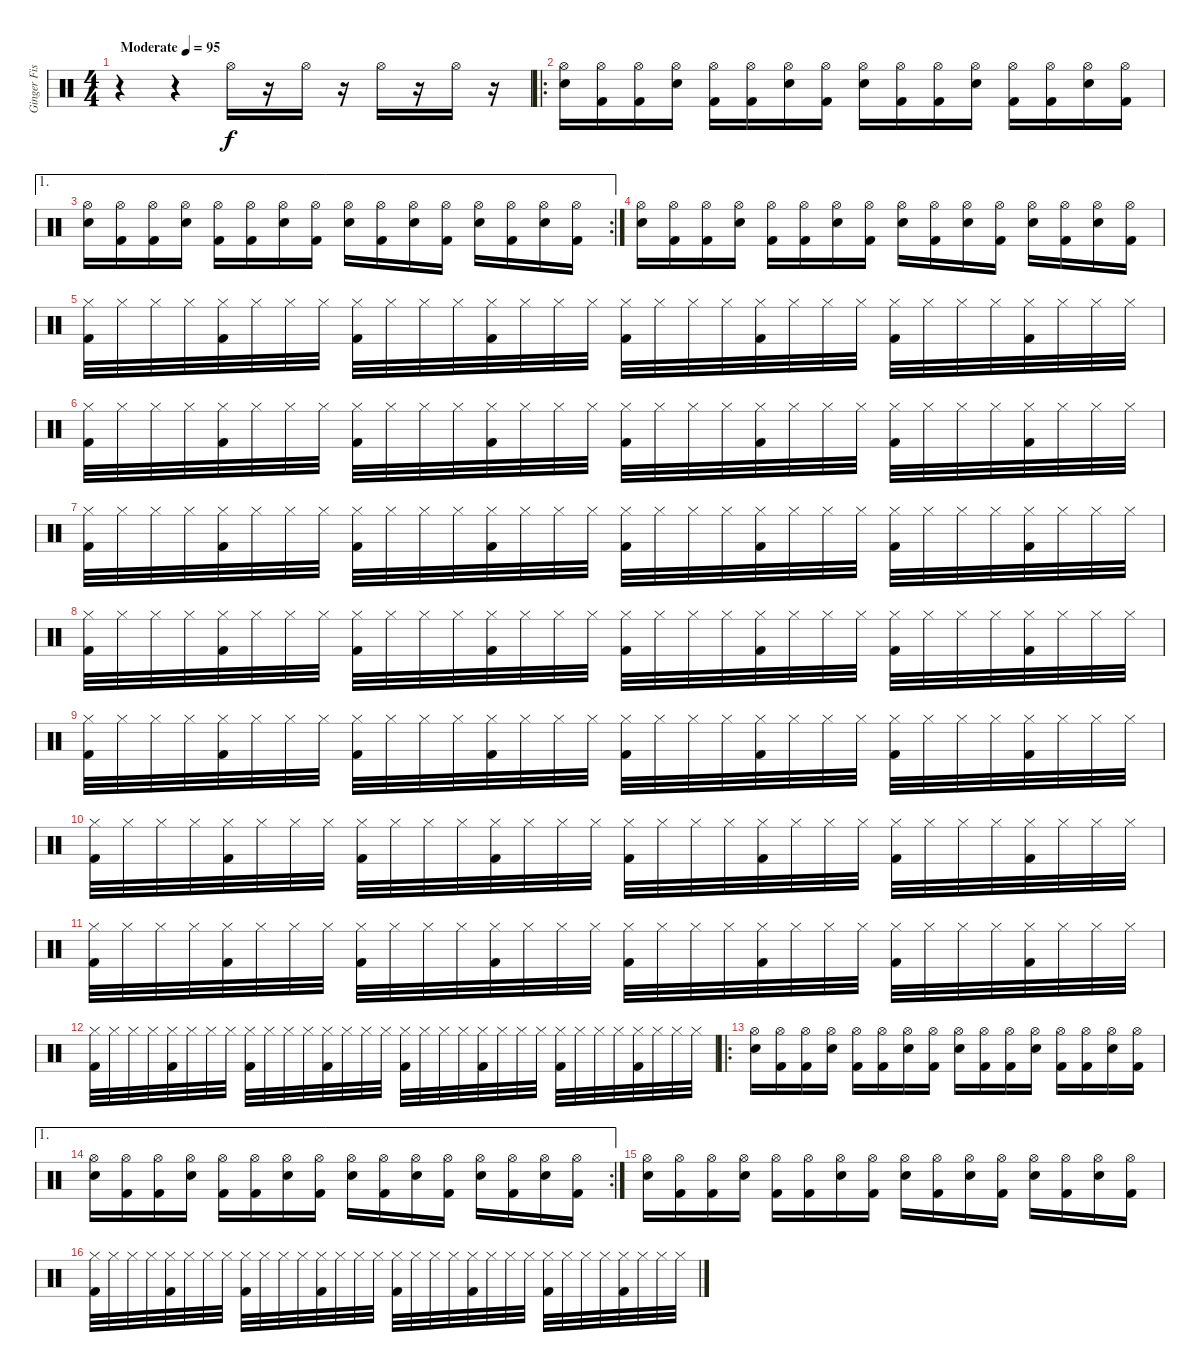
\track ("Ginger Fish" "Ginger Fis") {instrument percussion}
\staff {score}
\articulation defaults
\ts (4 4)
\tempo (95 "Moderate")
\clef neutral
\ks c
r.4{dy f} r.4 "Hi-Hat (open)".16 r.16 "Hi-Hat (open)".16 r.16 "Hi-Hat (open)".16 r.16 "Hi-Hat (open)".16 r.16 |
\ro
("Hi-Hat (open)" "Electric Snare (hit)").16 ("Hi-Hat (open)" "Kick (hit) 2").16 ("Hi-Hat (open)" "Kick (hit) 2").16 ("Hi-Hat (open)" "Electric Snare (hit)").16 ("Hi-Hat (open)" "Kick (hit) 2").16 ("Hi-Hat (open)" "Kick (hit) 2").16 ("Hi-Hat (open)" "Electric Snare (hit)").16 ("Hi-Hat (open)" "Kick (hit) 2").16 ("Hi-Hat (open)" "Electric Snare (hit)").16 ("Hi-Hat (open)" "Kick (hit) 2").16 ("Hi-Hat (open)" "Kick (hit) 2").16 ("Hi-Hat (open)" "Electric Snare (hit)").16 ("Hi-Hat (open)" "Kick (hit) 2").16 ("Hi-Hat (open)" "Kick (hit) 2").16 ("Hi-Hat (open)" "Electric Snare (hit)").16 ("Hi-Hat (open)" "Kick (hit) 2").16 |
\ae 1
\rc 2
("Hi-Hat (open)" "Electric Snare (hit)").16 ("Hi-Hat (open)" "Kick (hit) 2").16 ("Hi-Hat (open)" "Kick (hit) 2").16 ("Hi-Hat (open)" "Electric Snare (hit)").16 ("Hi-Hat (open)" "Kick (hit) 2").16 ("Hi-Hat (open)" "Kick (hit) 2").16 ("Hi-Hat (open)" "Electric Snare (hit)").16 ("Hi-Hat (open)" "Kick (hit) 2").16 ("Hi-Hat (open)" "Electric Snare (hit)").16 ("Hi-Hat (open)" "Kick (hit) 2").16 ("Hi-Hat (open)" "Electric Snare (hit)").16 ("Hi-Hat (open)" "Kick (hit) 2").16 ("Hi-Hat (open)" "Electric Snare (hit)").16 ("Hi-Hat (open)" "Kick (hit) 2").16 ("Hi-Hat (open)" "Electric Snare (hit)").16 ("Hi-Hat (open)" "Kick (hit) 2").16 |
("Hi-Hat (open)" "Electric Snare (hit)").16 ("Hi-Hat (open)" "Kick (hit) 2").16 ("Hi-Hat (open)" "Kick (hit) 2").16 ("Hi-Hat (open)" "Electric Snare (hit)").16 ("Hi-Hat (open)" "Kick (hit) 2").16 ("Hi-Hat (open)" "Kick (hit) 2").16 ("Hi-Hat (open)" "Electric Snare (hit)").16 ("Hi-Hat (open)" "Kick (hit) 2").16 ("Hi-Hat (open)" "Electric Snare (hit)").16 ("Hi-Hat (open)" "Kick (hit) 2").16 ("Hi-Hat (open)" "Electric Snare (hit)").16 ("Hi-Hat (open)" "Kick (hit) 2").16 ("Hi-Hat (open)" "Electric Snare (hit)").16 ("Hi-Hat (open)" "Kick (hit) 2").16 ("Hi-Hat (open)" "Electric Snare (hit)").16 ("Hi-Hat (open)" "Kick (hit) 2").16 |
("Hi-Hat (closed)" "Kick (hit) 2").32 "Hi-Hat (closed)".32 "Hi-Hat (closed)".32 "Hi-Hat (closed)".32 ("Hi-Hat (closed)" "Kick (hit) 2").32 "Hi-Hat (closed)".32 "Hi-Hat (closed)".32 "Hi-Hat (closed)".32 ("Hi-Hat (closed)" "Kick (hit) 2").32 "Hi-Hat (closed)".32 "Hi-Hat (closed)".32 "Hi-Hat (closed)".32 ("Hi-Hat (closed)" "Kick (hit) 2").32 "Hi-Hat (closed)".32 "Hi-Hat (closed)".32 "Hi-Hat (closed)".32 ("Hi-Hat (closed)" "Kick (hit) 2").32 "Hi-Hat (closed)".32 "Hi-Hat (closed)".32 "Hi-Hat (closed)".32 ("Hi-Hat (closed)" "Kick (hit) 2").32 "Hi-Hat (closed)".32 "Hi-Hat (closed)".32 "Hi-Hat (closed)".32 ("Hi-Hat (closed)" "Kick (hit) 2").32 "Hi-Hat (closed)".32 "Hi-Hat (closed)".32 "Hi-Hat (closed)".32 ("Hi-Hat (closed)" "Kick (hit) 2").32 "Hi-Hat (closed)".32 "Hi-Hat (closed)".32 "Hi-Hat (closed)".32 |
("Hi-Hat (closed)" "Kick (hit) 2").32 "Hi-Hat (closed)".32 "Hi-Hat (closed)".32 "Hi-Hat (closed)".32 ("Hi-Hat (closed)" "Kick (hit) 2").32 "Hi-Hat (closed)".32 "Hi-Hat (closed)".32 "Hi-Hat (closed)".32 ("Hi-Hat (closed)" "Kick (hit) 2").32 "Hi-Hat (closed)".32 "Hi-Hat (closed)".32 "Hi-Hat (closed)".32 ("Hi-Hat (closed)" "Kick (hit) 2").32 "Hi-Hat (closed)".32 "Hi-Hat (closed)".32 "Hi-Hat (closed)".32 ("Hi-Hat (closed)" "Kick (hit) 2").32 "Hi-Hat (closed)".32 "Hi-Hat (closed)".32 "Hi-Hat (closed)".32 ("Hi-Hat (closed)" "Kick (hit) 2").32 "Hi-Hat (closed)".32 "Hi-Hat (closed)".32 "Hi-Hat (closed)".32 ("Hi-Hat (closed)" "Kick (hit) 2").32 "Hi-Hat (closed)".32 "Hi-Hat (closed)".32 "Hi-Hat (closed)".32 ("Hi-Hat (closed)" "Kick (hit) 2").32 "Hi-Hat (closed)".32 "Hi-Hat (closed)".32 "Hi-Hat (closed)".32 |
("Hi-Hat (closed)" "Kick (hit) 2").32 "Hi-Hat (closed)".32 "Hi-Hat (closed)".32 "Hi-Hat (closed)".32 ("Hi-Hat (closed)" "Kick (hit) 2").32 "Hi-Hat (closed)".32 "Hi-Hat (closed)".32 "Hi-Hat (closed)".32 ("Hi-Hat (closed)" "Kick (hit) 2").32 "Hi-Hat (closed)".32 "Hi-Hat (closed)".32 "Hi-Hat (closed)".32 ("Hi-Hat (closed)" "Kick (hit) 2").32 "Hi-Hat (closed)".32 "Hi-Hat (closed)".32 "Hi-Hat (closed)".32 ("Hi-Hat (closed)" "Kick (hit) 2").32 "Hi-Hat (closed)".32 "Hi-Hat (closed)".32 "Hi-Hat (closed)".32 ("Hi-Hat (closed)" "Kick (hit) 2").32 "Hi-Hat (closed)".32 "Hi-Hat (closed)".32 "Hi-Hat (closed)".32 ("Hi-Hat (closed)" "Kick (hit) 2").32 "Hi-Hat (closed)".32 "Hi-Hat (closed)".32 "Hi-Hat (closed)".32 ("Hi-Hat (closed)" "Kick (hit) 2").32 "Hi-Hat (closed)".32 "Hi-Hat (closed)".32 "Hi-Hat (closed)".32 |
("Hi-Hat (closed)" "Kick (hit) 2").32 "Hi-Hat (closed)".32 "Hi-Hat (closed)".32 "Hi-Hat (closed)".32 ("Hi-Hat (closed)" "Kick (hit) 2").32 "Hi-Hat (closed)".32 "Hi-Hat (closed)".32 "Hi-Hat (closed)".32 ("Hi-Hat (closed)" "Kick (hit) 2").32 "Hi-Hat (closed)".32 "Hi-Hat (closed)".32 "Hi-Hat (closed)".32 ("Hi-Hat (closed)" "Kick (hit) 2").32 "Hi-Hat (closed)".32 "Hi-Hat (closed)".32 "Hi-Hat (closed)".32 ("Hi-Hat (closed)" "Kick (hit) 2").32 "Hi-Hat (closed)".32 "Hi-Hat (closed)".32 "Hi-Hat (closed)".32 ("Hi-Hat (closed)" "Kick (hit) 2").32 "Hi-Hat (closed)".32 "Hi-Hat (closed)".32 "Hi-Hat (closed)".32 ("Hi-Hat (closed)" "Kick (hit) 2").32 "Hi-Hat (closed)".32 "Hi-Hat (closed)".32 "Hi-Hat (closed)".32 ("Hi-Hat (closed)" "Kick (hit) 2").32 "Hi-Hat (closed)".32 "Hi-Hat (closed)".32 "Hi-Hat (closed)".32 |
("Hi-Hat (closed)" "Kick (hit) 2").32 "Hi-Hat (closed)".32 "Hi-Hat (closed)".32 "Hi-Hat (closed)".32 ("Hi-Hat (closed)" "Kick (hit) 2").32 "Hi-Hat (closed)".32 "Hi-Hat (closed)".32 "Hi-Hat (closed)".32 ("Hi-Hat (closed)" "Kick (hit) 2").32 "Hi-Hat (closed)".32 "Hi-Hat (closed)".32 "Hi-Hat (closed)".32 ("Hi-Hat (closed)" "Kick (hit) 2").32 "Hi-Hat (closed)".32 "Hi-Hat (closed)".32 "Hi-Hat (closed)".32 ("Hi-Hat (closed)" "Kick (hit) 2").32 "Hi-Hat (closed)".32 "Hi-Hat (closed)".32 "Hi-Hat (closed)".32 ("Hi-Hat (closed)" "Kick (hit) 2").32 "Hi-Hat (closed)".32 "Hi-Hat (closed)".32 "Hi-Hat (closed)".32 ("Hi-Hat (closed)" "Kick (hit) 2").32 "Hi-Hat (closed)".32 "Hi-Hat (closed)".32 "Hi-Hat (closed)".32 ("Hi-Hat (closed)" "Kick (hit) 2").32 "Hi-Hat (closed)".32 "Hi-Hat (closed)".32 "Hi-Hat (closed)".32 |
("Hi-Hat (closed)" "Kick (hit) 2").32 "Hi-Hat (closed)".32 "Hi-Hat (closed)".32 "Hi-Hat (closed)".32 ("Hi-Hat (closed)" "Kick (hit) 2").32 "Hi-Hat (closed)".32 "Hi-Hat (closed)".32 "Hi-Hat (closed)".32 ("Hi-Hat (closed)" "Kick (hit) 2").32 "Hi-Hat (closed)".32 "Hi-Hat (closed)".32 "Hi-Hat (closed)".32 ("Hi-Hat (closed)" "Kick (hit) 2").32 "Hi-Hat (closed)".32 "Hi-Hat (closed)".32 "Hi-Hat (closed)".32 ("Hi-Hat (closed)" "Kick (hit) 2").32 "Hi-Hat (closed)".32 "Hi-Hat (closed)".32 "Hi-Hat (closed)".32 ("Hi-Hat (closed)" "Kick (hit) 2").32 "Hi-Hat (closed)".32 "Hi-Hat (closed)".32 "Hi-Hat (closed)".32 ("Hi-Hat (closed)" "Kick (hit) 2").32 "Hi-Hat (closed)".32 "Hi-Hat (closed)".32 "Hi-Hat (closed)".32 ("Hi-Hat (closed)" "Kick (hit) 2").32 "Hi-Hat (closed)".32 "Hi-Hat (closed)".32 "Hi-Hat (closed)".32 |
("Hi-Hat (closed)" "Kick (hit) 2").32 "Hi-Hat (closed)".32 "Hi-Hat (closed)".32 "Hi-Hat (closed)".32 ("Hi-Hat (closed)" "Kick (hit) 2").32 "Hi-Hat (closed)".32 "Hi-Hat (closed)".32 "Hi-Hat (closed)".32 ("Hi-Hat (closed)" "Kick (hit) 2").32 "Hi-Hat (closed)".32 "Hi-Hat (closed)".32 "Hi-Hat (closed)".32 ("Hi-Hat (closed)" "Kick (hit) 2").32 "Hi-Hat (closed)".32 "Hi-Hat (closed)".32 "Hi-Hat (closed)".32 ("Hi-Hat (closed)" "Kick (hit) 2").32 "Hi-Hat (closed)".32 "Hi-Hat (closed)".32 "Hi-Hat (closed)".32 ("Hi-Hat (closed)" "Kick (hit) 2").32 "Hi-Hat (closed)".32 "Hi-Hat (closed)".32 "Hi-Hat (closed)".32 ("Hi-Hat (closed)" "Kick (hit) 2").32 "Hi-Hat (closed)".32 "Hi-Hat (closed)".32 "Hi-Hat (closed)".32 ("Hi-Hat (closed)" "Kick (hit) 2").32 "Hi-Hat (closed)".32 "Hi-Hat (closed)".32 "Hi-Hat (closed)".32 |
("Hi-Hat (closed)" "Kick (hit) 2").32 "Hi-Hat (closed)".32 "Hi-Hat (closed)".32 "Hi-Hat (closed)".32 ("Hi-Hat (closed)" "Kick (hit) 2").32 "Hi-Hat (closed)".32 "Hi-Hat (closed)".32 "Hi-Hat (closed)".32 ("Hi-Hat (closed)" "Kick (hit) 2").32 "Hi-Hat (closed)".32 "Hi-Hat (closed)".32 "Hi-Hat (closed)".32 ("Hi-Hat (closed)" "Kick (hit) 2").32 "Hi-Hat (closed)".32 "Hi-Hat (closed)".32 "Hi-Hat (closed)".32 ("Hi-Hat (closed)" "Kick (hit) 2").32 "Hi-Hat (closed)".32 "Hi-Hat (closed)".32 "Hi-Hat (closed)".32 ("Hi-Hat (closed)" "Kick (hit) 2").32 "Hi-Hat (closed)".32 "Hi-Hat (closed)".32 "Hi-Hat (closed)".32 ("Hi-Hat (closed)" "Kick (hit) 2").32 "Hi-Hat (closed)".32 "Hi-Hat (closed)".32 "Hi-Hat (closed)".32 ("Hi-Hat (closed)" "Kick (hit) 2").32 "Hi-Hat (closed)".32 "Hi-Hat (closed)".32 "Hi-Hat (closed)".32 |
\ro
("Hi-Hat (open)" "Electric Snare (hit)").16 ("Hi-Hat (open)" "Kick (hit) 2").16 ("Hi-Hat (open)" "Kick (hit) 2").16 ("Hi-Hat (open)" "Electric Snare (hit)").16 ("Hi-Hat (open)" "Kick (hit) 2").16 ("Hi-Hat (open)" "Kick (hit) 2").16 ("Hi-Hat (open)" "Electric Snare (hit)").16 ("Hi-Hat (open)" "Kick (hit) 2").16 ("Hi-Hat (open)" "Electric Snare (hit)").16 ("Hi-Hat (open)" "Kick (hit) 2").16 ("Hi-Hat (open)" "Kick (hit) 2").16 ("Hi-Hat (open)" "Electric Snare (hit)").16 ("Hi-Hat (open)" "Kick (hit) 2").16 ("Hi-Hat (open)" "Kick (hit) 2").16 ("Hi-Hat (open)" "Electric Snare (hit)").16 ("Hi-Hat (open)" "Kick (hit) 2").16 |
\ae 1
\rc 2
("Hi-Hat (open)" "Electric Snare (hit)").16 ("Hi-Hat (open)" "Kick (hit) 2").16 ("Hi-Hat (open)" "Kick (hit) 2").16 ("Hi-Hat (open)" "Electric Snare (hit)").16 ("Hi-Hat (open)" "Kick (hit) 2").16 ("Hi-Hat (open)" "Kick (hit) 2").16 ("Hi-Hat (open)" "Electric Snare (hit)").16 ("Hi-Hat (open)" "Kick (hit) 2").16 ("Hi-Hat (open)" "Electric Snare (hit)").16 ("Hi-Hat (open)" "Kick (hit) 2").16 ("Hi-Hat (open)" "Electric Snare (hit)").16 ("Hi-Hat (open)" "Kick (hit) 2").16 ("Hi-Hat (open)" "Electric Snare (hit)").16 ("Hi-Hat (open)" "Kick (hit) 2").16 ("Hi-Hat (open)" "Electric Snare (hit)").16 ("Hi-Hat (open)" "Kick (hit) 2").16 |
("Hi-Hat (open)" "Electric Snare (hit)").16 ("Hi-Hat (open)" "Kick (hit) 2").16 ("Hi-Hat (open)" "Kick (hit) 2").16 ("Hi-Hat (open)" "Electric Snare (hit)").16 ("Hi-Hat (open)" "Kick (hit) 2").16 ("Hi-Hat (open)" "Kick (hit) 2").16 ("Hi-Hat (open)" "Electric Snare (hit)").16 ("Hi-Hat (open)" "Kick (hit) 2").16 ("Hi-Hat (open)" "Electric Snare (hit)").16 ("Hi-Hat (open)" "Kick (hit) 2").16 ("Hi-Hat (open)" "Electric Snare (hit)").16 ("Hi-Hat (open)" "Kick (hit) 2").16 ("Hi-Hat (open)" "Electric Snare (hit)").16 ("Hi-Hat (open)" "Kick (hit) 2").16 ("Hi-Hat (open)" "Electric Snare (hit)").16 ("Hi-Hat (open)" "Kick (hit) 2").16 |
("Hi-Hat (closed)" "Kick (hit) 2").32 "Hi-Hat (closed)".32 "Hi-Hat (closed)".32 "Hi-Hat (closed)".32 ("Hi-Hat (closed)" "Kick (hit) 2").32 "Hi-Hat (closed)".32 "Hi-Hat (closed)".32 "Hi-Hat (closed)".32 ("Hi-Hat (closed)" "Kick (hit) 2").32 "Hi-Hat (closed)".32 "Hi-Hat (closed)".32 "Hi-Hat (closed)".32 ("Hi-Hat (closed)" "Kick (hit) 2").32 "Hi-Hat (closed)".32 "Hi-Hat (closed)".32 "Hi-Hat (closed)".32 ("Hi-Hat (closed)" "Kick (hit) 2").32 "Hi-Hat (closed)".32 "Hi-Hat (closed)".32 "Hi-Hat (closed)".32 ("Hi-Hat (closed)" "Kick (hit) 2").32 "Hi-Hat (closed)".32 "Hi-Hat (closed)".32 "Hi-Hat (closed)".32 ("Hi-Hat (closed)" "Kick (hit) 2").32 "Hi-Hat (closed)".32 "Hi-Hat (closed)".32 "Hi-Hat (closed)".32 ("Hi-Hat (closed)" "Kick (hit) 2").32 "Hi-Hat (closed)".32 "Hi-Hat (closed)".32 "Hi-Hat (closed)".32
